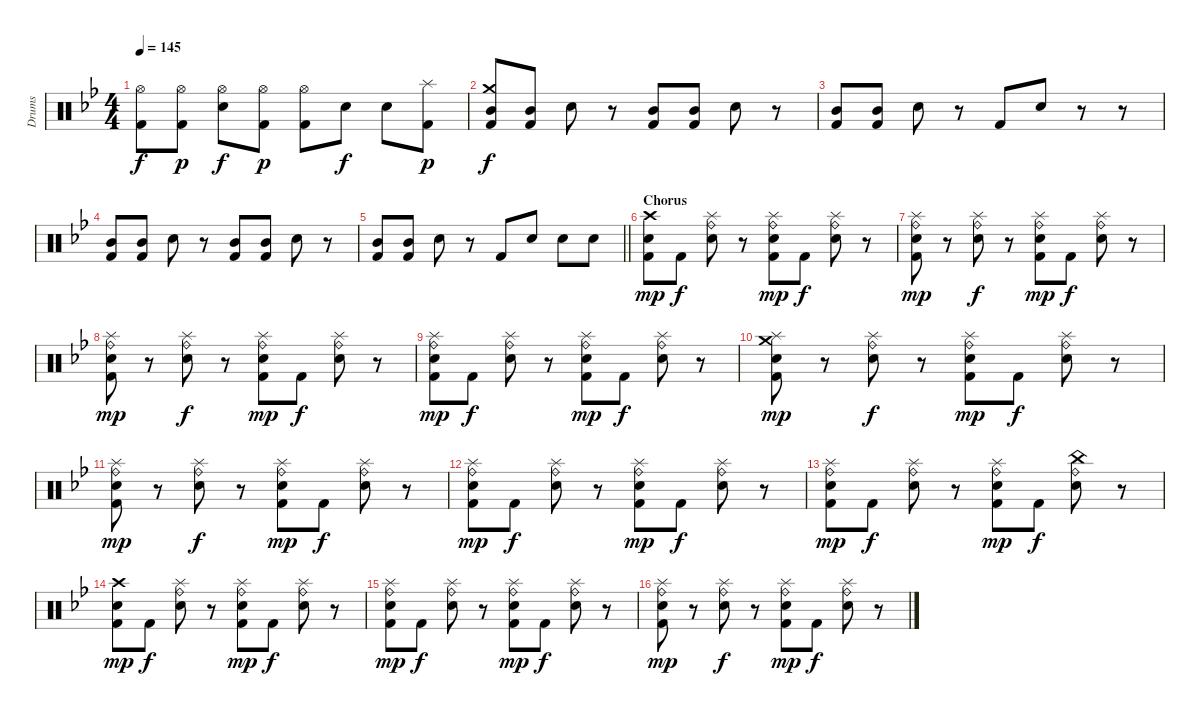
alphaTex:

\track ("Drums" "Drums") {instrument percussion}
\staff {score}
\articulation defaults
\ts (4 4)
\tempo 145
\clef neutral
\ks bb
("Hi-Hat (open)" "Kick (hit) 2").8{dy f} ("Hi-Hat (open)" "Kick (hit) 2").8{dy p} ("Hi-Hat (open)" "Electric Snare (hit)").8{dy f} ("Hi-Hat (open)" "Kick (hit) 2").8{dy p} ("Hi-Hat (open)" "Kick (hit) 2").8 "Electric Snare (hit)".8{dy f} "Electric Snare (hit)".8 ("Splash (hit)" "Kick (hit) 2").8{dy p} |
("Crash medium (hit)" "Mid Tom (hit)" "Kick (hit) 2").8{dy f} ("Mid Tom (hit)" "Kick (hit) 2").8 "Electric Snare (hit)".8 r.8 ("Mid Tom (hit)" "Kick (hit) 2").8 ("Mid Tom (hit)" "Kick (hit) 2").8 "Electric Snare (hit)".8 r.8 |
("Mid Tom (hit)" "Kick (hit) 2").8 ("Mid Tom (hit)" "Kick (hit) 2").8 "Electric Snare (hit)".8 r.8 "Kick (hit) 2".8 "Electric Snare (hit)".8 r.8 r.8 |
("Mid Tom (hit)" "Kick (hit) 2").8 ("Mid Tom (hit)" "Kick (hit) 2").8 "Electric Snare (hit)".8 r.8 ("Mid Tom (hit)" "Kick (hit) 2").8 ("Mid Tom (hit)" "Kick (hit) 2").8 "Electric Snare (hit)".8 r.8 |
\barLineRight lightlight
("Mid Tom (hit)" "Kick (hit) 2").8 ("Mid Tom (hit)" "Kick (hit) 2").8 "Electric Snare (hit)".8 r.8 "Kick (hit) 2".8 "Electric Snare (hit)".8 "Electric Snare (hit)".8 "Electric Snare (hit)".8 |
\section ("" "Chorus")
("Crash high (hit)" "Electric Snare (hit)" "Kick (hit) 2").8{dy mp} "Kick (hit) 2".8{dy f} ("Ride (bell)" "Splash (hit)" "Electric Snare (hit)").8 r.8 ("Ride (bell)" "Splash (hit)" "Electric Snare (hit)" "Kick (hit) 2").8{dy mp} "Kick (hit) 2".8{dy f} ("Ride (bell)" "Splash (hit)" "Electric Snare (hit)").8 r.8 |
("Ride (bell)" "Splash (hit)" "Electric Snare (hit)" "Kick (hit) 2").8{dy mp} r.8 ("Ride (bell)" "Splash (hit)" "Electric Snare (hit)").8{dy f} r.8 ("Ride (bell)" "Splash (hit)" "Electric Snare (hit)" "Kick (hit) 2").8{dy mp} "Kick (hit) 2".8{dy f} ("Ride (bell)" "Splash (hit)" "Electric Snare (hit)").8 r.8 |
("Ride (bell)" "Splash (hit)" "Electric Snare (hit)" "Kick (hit) 2").8{dy mp} r.8 ("Ride (bell)" "Splash (hit)" "Electric Snare (hit)").8{dy f} r.8 ("Ride (bell)" "Splash (hit)" "Electric Snare (hit)" "Kick (hit) 2").8{dy mp} "Kick (hit) 2".8{dy f} ("Ride (bell)" "Splash (hit)" "Electric Snare (hit)").8 r.8 |
("Ride (bell)" "Splash (hit)" "Electric Snare (hit)" "Kick (hit) 2").8{dy mp} "Kick (hit) 2".8{dy f} ("Ride (bell)" "Splash (hit)" "Electric Snare (hit)").8 r.8 ("Ride (bell)" "Splash (hit)" "Electric Snare (hit)" "Kick (hit) 2").8{dy mp} "Kick (hit) 2".8{dy f} ("Ride (bell)" "Splash (hit)" "Electric Snare (hit)").8 r.8 |
("Crash medium (hit)" "Splash (hit)" "Electric Snare (hit)" "Kick (hit) 2").8{dy mp} r.8 ("Ride (bell)" "Splash (hit)" "Electric Snare (hit)").8{dy f} r.8 ("Ride (bell)" "Splash (hit)" "Electric Snare (hit)" "Kick (hit) 2").8{dy mp} "Kick (hit) 2".8{dy f} ("Ride (bell)" "Splash (hit)" "Electric Snare (hit)").8 r.8 |
("Ride (bell)" "Splash (hit)" "Electric Snare (hit)" "Kick (hit) 2").8{dy mp} r.8 ("Ride (bell)" "Splash (hit)" "Electric Snare (hit)").8{dy f} r.8 ("Ride (bell)" "Splash (hit)" "Electric Snare (hit)" "Kick (hit) 2").8{dy mp} "Kick (hit) 2".8{dy f} ("Ride (bell)" "Splash (hit)" "Electric Snare (hit)").8 r.8 |
("Ride (bell)" "Splash (hit)" "Electric Snare (hit)" "Kick (hit) 2").8{dy mp} "Kick (hit) 2".8{dy f} ("Ride (bell)" "Splash (hit)" "Electric Snare (hit)").8 r.8 ("Ride (bell)" "Splash (hit)" "Electric Snare (hit)" "Kick (hit) 2").8{dy mp} "Kick (hit) 2".8{dy f} ("Ride (bell)" "Splash (hit)" "Electric Snare (hit)").8 r.8 |
("Ride (bell)" "Splash (hit)" "Electric Snare (hit)" "Kick (hit) 2").8{dy mp} "Kick (hit) 2".8{dy f} ("Ride (bell)" "Splash (hit)" "Electric Snare (hit)").8 r.8 ("Ride (bell)" "Splash (hit)" "Electric Snare (hit)" "Kick (hit) 2").8{dy mp} "Kick (hit) 2".8{dy f} ("Ride (bell)" "China (hit)" "Electric Snare (hit)").8 r.8 |
("Crash high (hit)" "Electric Snare (hit)" "Kick (hit) 2").8{dy mp} "Kick (hit) 2".8{dy f} ("Ride (bell)" "Splash (hit)" "Electric Snare (hit)").8 r.8 ("Ride (bell)" "Splash (hit)" "Electric Snare (hit)" "Kick (hit) 2").8{dy mp} "Kick (hit) 2".8{dy f} ("Ride (bell)" "Splash (hit)" "Electric Snare (hit)").8 r.8 |
("Ride (bell)" "Splash (hit)" "Electric Snare (hit)" "Kick (hit) 2").8{dy mp} "Kick (hit) 2".8{dy f} ("Ride (bell)" "Splash (hit)" "Electric Snare (hit)").8 r.8 ("Ride (bell)" "Splash (hit)" "Electric Snare (hit)" "Kick (hit) 2").8{dy mp} "Kick (hit) 2".8{dy f} ("Ride (bell)" "Splash (hit)" "Electric Snare (hit)").8 r.8 |
("Ride (bell)" "Splash (hit)" "Electric Snare (hit)" "Kick (hit) 2").8{dy mp} r.8 ("Ride (bell)" "Splash (hit)" "Electric Snare (hit)").8{dy f} r.8 ("Ride (bell)" "Splash (hit)" "Electric Snare (hit)" "Kick (hit) 2").8{dy mp} "Kick (hit) 2".8{dy f} ("Ride (bell)" "Splash (hit)" "Electric Snare (hit)").8 r.8
